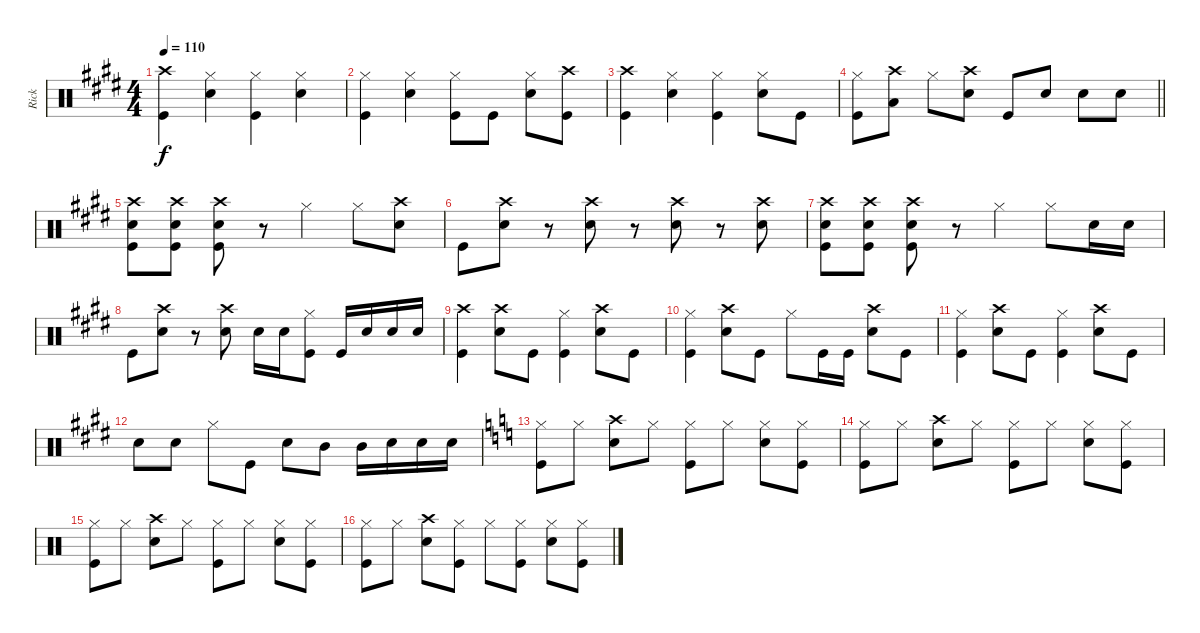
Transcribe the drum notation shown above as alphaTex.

\track ("Rick" "Rick") {instrument percussion}
\staff {score}
\articulation defaults
\ts (4 4)
\tempo 110
\clef neutral
\ks c#minor
("Crash high (hit)" "Kick (hit)").4{dy f} ("Hi-Hat (closed)" "Snare (hit) 2").4 ("Hi-Hat (closed)" "Kick (hit)").4 ("Hi-Hat (closed)" "Snare (hit) 2").4 |
("Hi-Hat (closed)" "Kick (hit)").4 ("Hi-Hat (closed)" "Snare (hit) 2").4 ("Hi-Hat (closed)" "Kick (hit)").8 "Kick (hit)".8 ("Hi-Hat (closed)" "Snare (hit) 2").8 ("Crash high (hit)" "Kick (hit)").8 |
("Crash high (hit)" "Kick (hit)").4 ("Hi-Hat (closed)" "Snare (hit) 2").4 ("Hi-Hat (closed)" "Kick (hit)").4 ("Hi-Hat (closed)" "Snare (hit) 2").8 "Kick (hit)".8 |
\barLineRight lightlight
("Hi-Hat (closed)" "Kick (hit)").8 ("Crash high (hit)" "Low Tom (hit)").8 "Hi-Hat (closed)".8 ("Crash high (hit)" "Snare (hit) 2").8 "Kick (hit)".8 "Snare (hit) 2".8 "Snare (hit) 2".8 "Snare (hit) 2".8 |
("Crash high (hit)" "Snare (hit) 2" "Kick (hit)").8 ("Crash high (hit)" "Snare (hit) 2" "Kick (hit)").8 ("Crash high (hit)" "Snare (hit) 2" "Kick (hit)").8 r.8 "Hi-Hat (closed)".4 "Hi-Hat (closed)".8 ("Crash high (hit)" "Snare (hit) 2").8 |
"Kick (hit)".8 ("Crash high (hit)" "Snare (hit) 2").8 r.8 ("Crash high (hit)" "Snare (hit) 2").8 r.8 ("Crash high (hit)" "Snare (hit) 2").8 r.8 ("Crash high (hit)" "Snare (hit) 2").8 |
("Crash high (hit)" "Snare (hit) 2" "Kick (hit)").8 ("Crash high (hit)" "Snare (hit) 2" "Kick (hit)").8 ("Crash high (hit)" "Snare (hit) 2" "Kick (hit)").8 r.8 "Hi-Hat (closed)".4 "Hi-Hat (closed)".8 "Snare (hit) 2".16 "Snare (hit) 2".16 |
"Kick (hit)".8 ("Crash high (hit)" "Snare (hit) 2").8 r.8 ("Crash high (hit)" "Snare (hit) 2").8 "Snare (hit) 2".16 "Snare (hit) 2".16 ("Hi-Hat (closed)" "Kick (hit)").8 "Kick (hit)".16 "Snare (hit) 2".16 "Snare (hit) 2".16 "Snare (hit) 2".16 |
("Crash high (hit)" "Kick (hit)").4 ("Crash high (hit)" "Snare (hit) 2").8 "Kick (hit)".8 ("Hi-Hat (closed)" "Kick (hit)").4 ("Crash high (hit)" "Snare (hit) 2").8 "Kick (hit)".8 |
("Hi-Hat (closed)" "Kick (hit)").4 ("Crash high (hit)" "Snare (hit) 2").8 "Kick (hit)".8 "Hi-Hat (closed)".8 "Kick (hit)".16 "Kick (hit)".16 ("Crash high (hit)" "Snare (hit) 2").8 "Kick (hit)".8 |
("Hi-Hat (closed)" "Kick (hit)").4 ("Crash high (hit)" "Snare (hit) 2").8 "Kick (hit)".8 ("Hi-Hat (closed)" "Kick (hit)").4 ("Crash high (hit)" "Snare (hit) 2").8 "Kick (hit)".8 |
"Snare (hit) 2".8 "Snare (hit) 2".8 "Hi-Hat (closed)".8 "Kick (hit)".8 "Snare (hit) 2".8 "Mid Tom (hit)".8 "Mid Tom (hit)".16 "Snare (hit) 2".16 "Snare (hit) 2".16 "Snare (hit) 2".16 |
\ks c
("Hi-Hat (closed)" "Kick (hit)").8 "Hi-Hat (closed)".8 ("Crash high (hit)" "Snare (hit) 2").8 "Hi-Hat (closed)".8 ("Hi-Hat (closed)" "Kick (hit)").8 "Hi-Hat (closed)".8 ("Hi-Hat (closed)" "Snare (hit) 2").8 ("Hi-Hat (closed)" "Kick (hit)").8 |
("Hi-Hat (closed)" "Kick (hit)").8 "Hi-Hat (closed)".8 ("Crash high (hit)" "Snare (hit) 2").8 "Hi-Hat (closed)".8 ("Hi-Hat (closed)" "Kick (hit)").8 "Hi-Hat (closed)".8 ("Hi-Hat (closed)" "Snare (hit) 2").8 ("Hi-Hat (closed)" "Kick (hit)").8 |
("Hi-Hat (closed)" "Kick (hit)").8 "Hi-Hat (closed)".8 ("Crash high (hit)" "Snare (hit) 2").8 "Hi-Hat (closed)".8 ("Hi-Hat (closed)" "Kick (hit)").8 "Hi-Hat (closed)".8 ("Hi-Hat (closed)" "Snare (hit) 2").8 ("Hi-Hat (closed)" "Kick (hit)").8 |
("Hi-Hat (closed)" "Kick (hit)").8 "Hi-Hat (closed)".8 ("Crash high (hit)" "Snare (hit) 2").8 ("Hi-Hat (closed)" "Kick (hit)").8 "Hi-Hat (closed)".8 ("Hi-Hat (closed)" "Kick (hit)").8 ("Hi-Hat (closed)" "Snare (hit) 2").8 ("Hi-Hat (closed)" "Kick (hit)").8
